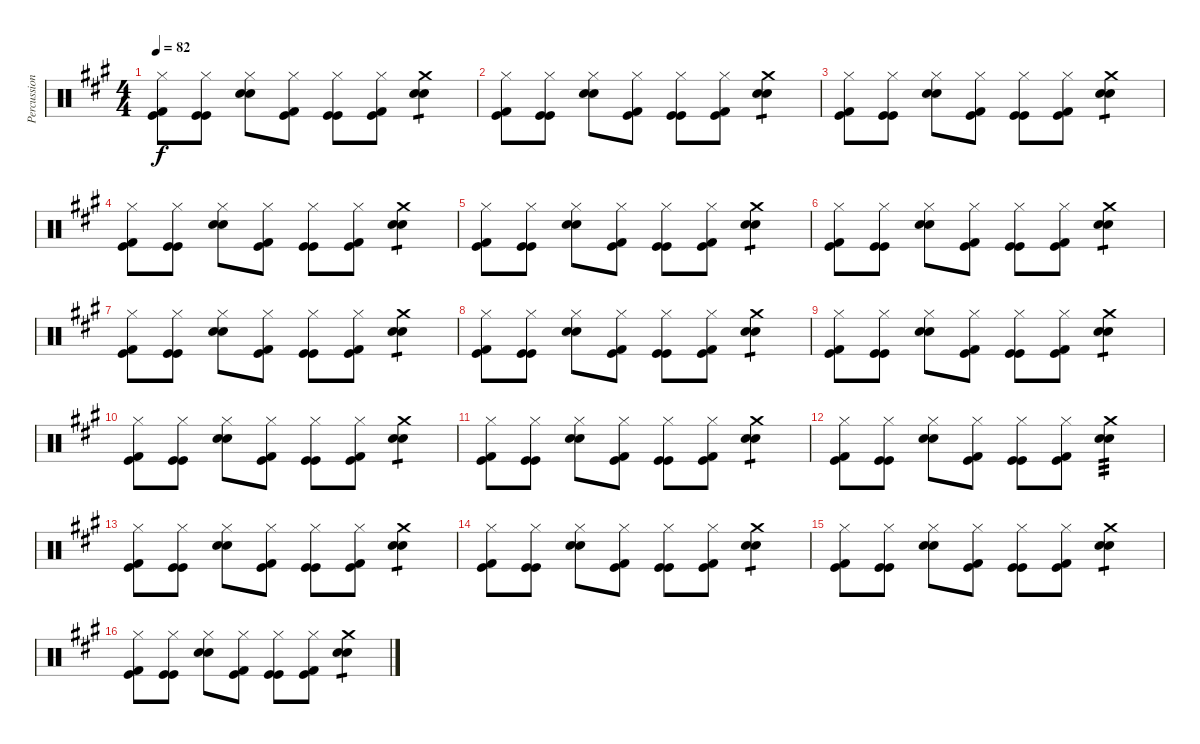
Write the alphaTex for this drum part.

\track ("Percussion" "Percussion") {instrument percussion}
\staff {score}
\articulation defaults
\ts (4 4)
\tempo 82
\clef neutral
\ks a
("Hi-Hat (closed)" "Kick (hit)" "Kick (hit) 2").8{dy f} ("Hi-Hat (closed)" "Kick (hit)" "Kick (hit)").8 ("Hi-Hat (closed)" "Electric Snare (hit)" "Snare (hit) 2").8 ("Hi-Hat (closed)" "Kick (hit)" "Kick (hit) 2").8 ("Hi-Hat (closed)" "Kick (hit)" "Kick (hit)").8 ("Hi-Hat (closed)" "Kick (hit)" "Kick (hit) 2").8 ("Crash medium (hit)" "Electric Snare (hit)" "Snare (hit) 2").4{tp 1} |
("Hi-Hat (closed)" "Kick (hit)" "Kick (hit) 2").8 ("Hi-Hat (closed)" "Kick (hit)" "Kick (hit)").8 ("Hi-Hat (closed)" "Electric Snare (hit)" "Snare (hit) 2").8 ("Hi-Hat (closed)" "Kick (hit)" "Kick (hit) 2").8 ("Hi-Hat (closed)" "Kick (hit)" "Kick (hit)").8 ("Hi-Hat (closed)" "Kick (hit)" "Kick (hit) 2").8 ("Crash medium (hit)" "Electric Snare (hit)" "Snare (hit) 2").4{tp 1} |
("Hi-Hat (closed)" "Kick (hit)" "Kick (hit) 2").8 ("Hi-Hat (closed)" "Kick (hit)" "Kick (hit)").8 ("Hi-Hat (closed)" "Electric Snare (hit)" "Snare (hit) 2").8 ("Hi-Hat (closed)" "Kick (hit)" "Kick (hit) 2").8 ("Hi-Hat (closed)" "Kick (hit)" "Kick (hit)").8 ("Hi-Hat (closed)" "Kick (hit)" "Kick (hit) 2").8 ("Crash medium (hit)" "Electric Snare (hit)" "Snare (hit) 2").4{tp 1} |
("Hi-Hat (closed)" "Kick (hit)" "Kick (hit) 2").8 ("Hi-Hat (closed)" "Kick (hit)" "Kick (hit)").8 ("Hi-Hat (closed)" "Electric Snare (hit)" "Snare (hit) 2").8 ("Hi-Hat (closed)" "Kick (hit)" "Kick (hit) 2").8 ("Hi-Hat (closed)" "Kick (hit)" "Kick (hit)").8 ("Hi-Hat (closed)" "Kick (hit)" "Kick (hit) 2").8 ("Crash medium (hit)" "Electric Snare (hit)" "Snare (hit) 2").4{tp 1} |
("Hi-Hat (closed)" "Kick (hit)" "Kick (hit) 2").8 ("Hi-Hat (closed)" "Kick (hit)" "Kick (hit)").8 ("Hi-Hat (closed)" "Electric Snare (hit)" "Snare (hit) 2").8 ("Hi-Hat (closed)" "Kick (hit)" "Kick (hit) 2").8 ("Hi-Hat (closed)" "Kick (hit)" "Kick (hit)").8 ("Hi-Hat (closed)" "Kick (hit)" "Kick (hit) 2").8 ("Crash medium (hit)" "Electric Snare (hit)" "Snare (hit) 2").4{tp 1} |
("Hi-Hat (closed)" "Kick (hit)" "Kick (hit) 2").8 ("Hi-Hat (closed)" "Kick (hit)" "Kick (hit)").8 ("Hi-Hat (closed)" "Electric Snare (hit)" "Snare (hit) 2").8 ("Hi-Hat (closed)" "Kick (hit)" "Kick (hit) 2").8 ("Hi-Hat (closed)" "Kick (hit)" "Kick (hit)").8 ("Hi-Hat (closed)" "Kick (hit)" "Kick (hit) 2").8 ("Crash medium (hit)" "Electric Snare (hit)" "Snare (hit) 2").4{tp 1} |
("Hi-Hat (closed)" "Kick (hit)" "Kick (hit) 2").8 ("Hi-Hat (closed)" "Kick (hit)" "Kick (hit)").8 ("Hi-Hat (closed)" "Electric Snare (hit)" "Snare (hit) 2").8 ("Hi-Hat (closed)" "Kick (hit)" "Kick (hit) 2").8 ("Hi-Hat (closed)" "Kick (hit)" "Kick (hit)").8 ("Hi-Hat (closed)" "Kick (hit)" "Kick (hit) 2").8 ("Crash medium (hit)" "Electric Snare (hit)" "Snare (hit) 2").4{tp 1} |
("Hi-Hat (closed)" "Kick (hit)" "Kick (hit) 2").8 ("Hi-Hat (closed)" "Kick (hit)" "Kick (hit)").8 ("Hi-Hat (closed)" "Electric Snare (hit)" "Snare (hit) 2").8 ("Hi-Hat (closed)" "Kick (hit)" "Kick (hit) 2").8 ("Hi-Hat (closed)" "Kick (hit)" "Kick (hit)").8 ("Hi-Hat (closed)" "Kick (hit)" "Kick (hit) 2").8 ("Crash medium (hit)" "Electric Snare (hit)" "Snare (hit) 2").4{tp 1} |
("Hi-Hat (closed)" "Kick (hit)" "Kick (hit) 2").8 ("Hi-Hat (closed)" "Kick (hit)" "Kick (hit)").8 ("Hi-Hat (closed)" "Electric Snare (hit)" "Snare (hit) 2").8 ("Hi-Hat (closed)" "Kick (hit)" "Kick (hit) 2").8 ("Hi-Hat (closed)" "Kick (hit)" "Kick (hit)").8 ("Hi-Hat (closed)" "Kick (hit)" "Kick (hit) 2").8 ("Crash medium (hit)" "Electric Snare (hit)" "Snare (hit) 2").4{tp 1} |
("Hi-Hat (closed)" "Kick (hit)" "Kick (hit) 2").8 ("Hi-Hat (closed)" "Kick (hit)" "Kick (hit)").8 ("Hi-Hat (closed)" "Electric Snare (hit)" "Snare (hit) 2").8 ("Hi-Hat (closed)" "Kick (hit)" "Kick (hit) 2").8 ("Hi-Hat (closed)" "Kick (hit)" "Kick (hit)").8 ("Hi-Hat (closed)" "Kick (hit)" "Kick (hit) 2").8 ("Crash medium (hit)" "Electric Snare (hit)" "Snare (hit) 2").4{tp 1} |
("Hi-Hat (closed)" "Kick (hit)" "Kick (hit) 2").8 ("Hi-Hat (closed)" "Kick (hit)" "Kick (hit)").8 ("Hi-Hat (closed)" "Electric Snare (hit)" "Snare (hit) 2").8 ("Hi-Hat (closed)" "Kick (hit)" "Kick (hit) 2").8 ("Hi-Hat (closed)" "Kick (hit)" "Kick (hit)").8 ("Hi-Hat (closed)" "Kick (hit)" "Kick (hit) 2").8 ("Crash medium (hit)" "Electric Snare (hit)" "Snare (hit) 2").4{tp 1} |
("Hi-Hat (closed)" "Kick (hit)" "Kick (hit) 2").8 ("Hi-Hat (closed)" "Kick (hit)" "Kick (hit)").8 ("Hi-Hat (closed)" "Electric Snare (hit)" "Snare (hit) 2").8 ("Hi-Hat (closed)" "Kick (hit)" "Kick (hit) 2").8 ("Hi-Hat (closed)" "Kick (hit)" "Kick (hit)").8 ("Hi-Hat (closed)" "Kick (hit)" "Kick (hit) 2").8 ("Crash medium (hit)" "Electric Snare (hit)" "Snare (hit) 2").4{tp 3} |
("Hi-Hat (closed)" "Kick (hit)" "Kick (hit) 2").8 ("Hi-Hat (closed)" "Kick (hit)" "Kick (hit)").8 ("Hi-Hat (closed)" "Electric Snare (hit)" "Snare (hit) 2").8 ("Hi-Hat (closed)" "Kick (hit)" "Kick (hit) 2").8 ("Hi-Hat (closed)" "Kick (hit)" "Kick (hit)").8 ("Hi-Hat (closed)" "Kick (hit)" "Kick (hit) 2").8 ("Crash medium (hit)" "Electric Snare (hit)" "Snare (hit) 2").4{tp 1} |
("Hi-Hat (closed)" "Kick (hit)" "Kick (hit) 2").8 ("Hi-Hat (closed)" "Kick (hit)" "Kick (hit)").8 ("Hi-Hat (closed)" "Electric Snare (hit)" "Snare (hit) 2").8 ("Hi-Hat (closed)" "Kick (hit)" "Kick (hit) 2").8 ("Hi-Hat (closed)" "Kick (hit)" "Kick (hit)").8 ("Hi-Hat (closed)" "Kick (hit)" "Kick (hit) 2").8 ("Crash medium (hit)" "Electric Snare (hit)" "Snare (hit) 2").4{tp 1} |
("Hi-Hat (closed)" "Kick (hit)" "Kick (hit) 2").8 ("Hi-Hat (closed)" "Kick (hit)" "Kick (hit)").8 ("Hi-Hat (closed)" "Electric Snare (hit)" "Snare (hit) 2").8 ("Hi-Hat (closed)" "Kick (hit)" "Kick (hit) 2").8 ("Hi-Hat (closed)" "Kick (hit)" "Kick (hit)").8 ("Hi-Hat (closed)" "Kick (hit)" "Kick (hit) 2").8 ("Crash medium (hit)" "Electric Snare (hit)" "Snare (hit) 2").4{tp 1} |
("Hi-Hat (closed)" "Kick (hit)" "Kick (hit) 2").8 ("Hi-Hat (closed)" "Kick (hit)" "Kick (hit)").8 ("Hi-Hat (closed)" "Electric Snare (hit)" "Snare (hit) 2").8 ("Hi-Hat (closed)" "Kick (hit)" "Kick (hit) 2").8 ("Hi-Hat (closed)" "Kick (hit)" "Kick (hit)").8 ("Hi-Hat (closed)" "Kick (hit)" "Kick (hit) 2").8 ("Crash medium (hit)" "Electric Snare (hit)" "Snare (hit) 2").4{tp 1}
